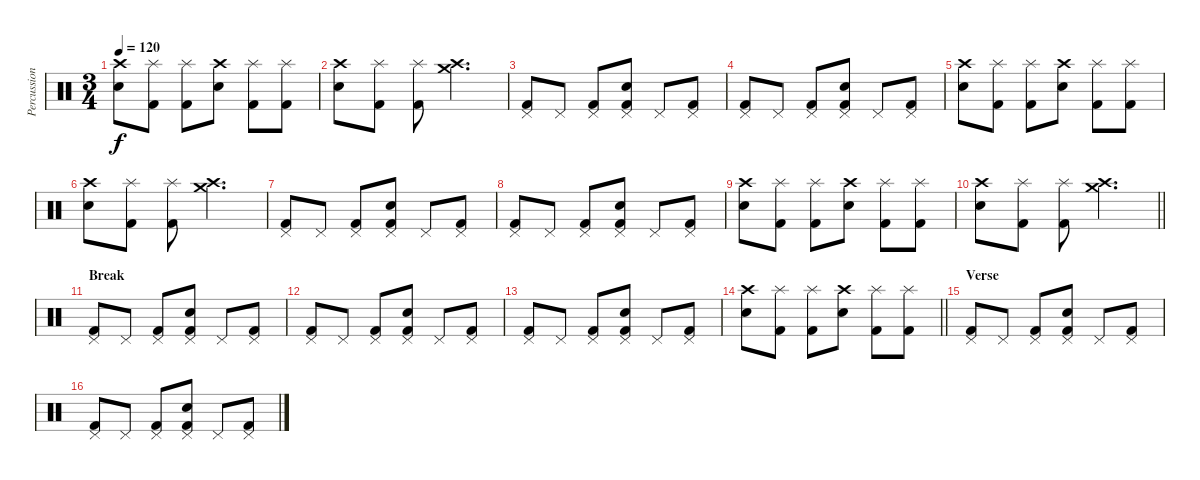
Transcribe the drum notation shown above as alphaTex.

\track ("Percussion" "Percussion") {instrument percussion}
\staff {score}
\articulation defaults
\ts (3 4)
\tempo 120
\clef neutral
\ks c
("Crash high (hit)" "Electric Snare (hit)").8{dy f} ("Splash (hit)" "Kick (hit) 2").8 ("Splash (hit)" "Kick (hit) 2").8 ("Crash high (hit)" "Electric Snare (hit)").8 ("Splash (hit)" "Kick (hit) 2").8 ("Splash (hit)" "Kick (hit) 2").8 |
("Crash high (hit)" "Electric Snare (hit)").8 ("Splash (hit)" "Kick (hit) 2").8 ("Splash (hit)" "Kick (hit) 2").8 ("Crash high (hit)" "Crash medium (hit)").4{d} |
("Pedal Hi-Hat (hit)" "Kick (hit) 2").8 "Pedal Hi-Hat (hit)".8 ("Pedal Hi-Hat (hit)" "Kick (hit) 2").8 ("Pedal Hi-Hat (hit)" "Electric Snare (hit)" "Kick (hit) 2").8 "Pedal Hi-Hat (hit)".8 ("Pedal Hi-Hat (hit)" "Kick (hit) 2").8 |
("Pedal Hi-Hat (hit)" "Kick (hit) 2").8 "Pedal Hi-Hat (hit)".8 ("Pedal Hi-Hat (hit)" "Kick (hit) 2").8 ("Pedal Hi-Hat (hit)" "Electric Snare (hit)" "Kick (hit) 2").8 "Pedal Hi-Hat (hit)".8 ("Pedal Hi-Hat (hit)" "Kick (hit) 2").8 |
("Crash high (hit)" "Electric Snare (hit)").8 ("Splash (hit)" "Kick (hit) 2").8 ("Splash (hit)" "Kick (hit) 2").8 ("Crash high (hit)" "Electric Snare (hit)").8 ("Splash (hit)" "Kick (hit) 2").8 ("Splash (hit)" "Kick (hit) 2").8 |
("Crash high (hit)" "Electric Snare (hit)").8 ("Splash (hit)" "Kick (hit) 2").8 ("Splash (hit)" "Kick (hit) 2").8 ("Crash high (hit)" "Crash medium (hit)").4{d} |
("Pedal Hi-Hat (hit)" "Kick (hit) 2").8 "Pedal Hi-Hat (hit)".8 ("Pedal Hi-Hat (hit)" "Kick (hit) 2").8 ("Pedal Hi-Hat (hit)" "Electric Snare (hit)" "Kick (hit) 2").8 "Pedal Hi-Hat (hit)".8 ("Pedal Hi-Hat (hit)" "Kick (hit) 2").8 |
("Pedal Hi-Hat (hit)" "Kick (hit) 2").8 "Pedal Hi-Hat (hit)".8 ("Pedal Hi-Hat (hit)" "Kick (hit) 2").8 ("Pedal Hi-Hat (hit)" "Electric Snare (hit)" "Kick (hit) 2").8 "Pedal Hi-Hat (hit)".8 ("Pedal Hi-Hat (hit)" "Kick (hit) 2").8 |
("Crash high (hit)" "Electric Snare (hit)").8 ("Splash (hit)" "Kick (hit) 2").8 ("Splash (hit)" "Kick (hit) 2").8 ("Crash high (hit)" "Electric Snare (hit)").8 ("Splash (hit)" "Kick (hit) 2").8 ("Splash (hit)" "Kick (hit) 2").8 |
\barLineRight lightlight
("Crash high (hit)" "Electric Snare (hit)").8 ("Splash (hit)" "Kick (hit) 2").8 ("Splash (hit)" "Kick (hit) 2").8 ("Crash high (hit)" "Crash medium (hit)").4{d} |
\section ("" "Break")
("Pedal Hi-Hat (hit)" "Kick (hit) 2").8 "Pedal Hi-Hat (hit)".8 ("Pedal Hi-Hat (hit)" "Kick (hit) 2").8 ("Pedal Hi-Hat (hit)" "Electric Snare (hit)" "Kick (hit) 2").8 "Pedal Hi-Hat (hit)".8 ("Pedal Hi-Hat (hit)" "Kick (hit) 2").8 |
("Pedal Hi-Hat (hit)" "Kick (hit) 2").8 "Pedal Hi-Hat (hit)".8 ("Pedal Hi-Hat (hit)" "Kick (hit) 2").8 ("Pedal Hi-Hat (hit)" "Electric Snare (hit)" "Kick (hit) 2").8 "Pedal Hi-Hat (hit)".8 ("Pedal Hi-Hat (hit)" "Kick (hit) 2").8 |
("Pedal Hi-Hat (hit)" "Kick (hit) 2").8 "Pedal Hi-Hat (hit)".8 ("Pedal Hi-Hat (hit)" "Kick (hit) 2").8 ("Pedal Hi-Hat (hit)" "Electric Snare (hit)" "Kick (hit) 2").8 "Pedal Hi-Hat (hit)".8 ("Pedal Hi-Hat (hit)" "Kick (hit) 2").8 |
\barLineRight lightlight
("Crash high (hit)" "Electric Snare (hit)").8 ("Splash (hit)" "Kick (hit) 2").8 ("Splash (hit)" "Kick (hit) 2").8 ("Crash high (hit)" "Electric Snare (hit)").8 ("Splash (hit)" "Kick (hit) 2").8 ("Splash (hit)" "Kick (hit) 2").8 |
\section ("" "Verse")
("Pedal Hi-Hat (hit)" "Kick (hit) 2").8 "Pedal Hi-Hat (hit)".8 ("Pedal Hi-Hat (hit)" "Kick (hit) 2").8 ("Pedal Hi-Hat (hit)" "Electric Snare (hit)" "Kick (hit) 2").8 "Pedal Hi-Hat (hit)".8 ("Pedal Hi-Hat (hit)" "Kick (hit) 2").8 |
("Pedal Hi-Hat (hit)" "Kick (hit) 2").8 "Pedal Hi-Hat (hit)".8 ("Pedal Hi-Hat (hit)" "Kick (hit) 2").8 ("Pedal Hi-Hat (hit)" "Electric Snare (hit)" "Kick (hit) 2").8 "Pedal Hi-Hat (hit)".8 ("Pedal Hi-Hat (hit)" "Kick (hit) 2").8
